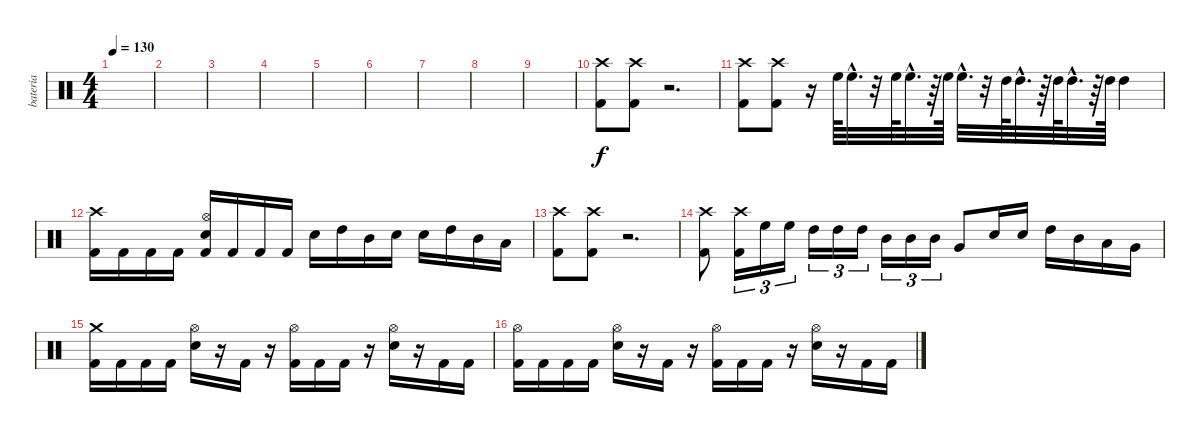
\track ("bateria" "bateria") {instrument percussion}
\staff {score}
\articulation defaults
\ts (4 4)
\tempo 130
\clef neutral
\ks c
|
|
|
|
|
|
|
|
|
("Crash high (hit)" "Kick (hit) 2").8 ("Crash high (hit)" "Kick (hit) 2").8 r.2{d} |
("Crash high (hit)" "Kick (hit) 2").8 ("Crash high (hit)" "Kick (hit) 2").8 r.16 "High Floor Tom (hit)".64 "High Floor Tom (hit)"{hac}.32{d} r.32 "High Floor Tom (hit)".64 "High Floor Tom (hit)"{hac}.32{d} r.64 "High Floor Tom (hit)".64 "High Floor Tom (hit)"{hac}.32{d} r.32 "High Tom (hit)".64 "High Tom (hit)"{hac}.32{d} r.64 "High Tom (hit)".64 "High Tom (hit)"{hac}.32{d} r.64 "High Tom (hit)".64 "High Tom (hit)".4 |
("Crash high (hit)" "Kick (hit) 2").16 "Kick (hit) 2".16 "Kick (hit) 2".16 "Kick (hit) 2".16 ("Hi-Hat (open)" "Electric Snare (hit)" "Kick (hit) 2").16 "Kick (hit) 2".16 "Kick (hit) 2".16 "Kick (hit) 2".16 "Electric Snare (hit)".16 "High Tom (hit)".16 "Mid Tom (hit)".16 "Electric Snare (hit)".16 "Electric Snare (hit)".16 "High Tom (hit)".16 "Mid Tom (hit)".16 "Low Tom (hit)".16 |
("Crash high (hit)" "Kick (hit) 2").8 ("Crash high (hit)" "Kick (hit) 2").8 r.2{d} |
("Crash high (hit)" "Kick (hit) 2").8 ("Crash high (hit)" "Kick (hit) 2").16{tu (3 2)} "High Floor Tom (hit)".16{tu (3 2)} "High Floor Tom (hit)".16{tu (3 2)} "High Tom (hit)".16{tu (3 2)} "High Tom (hit)".16{tu (3 2)} "High Tom (hit)".16{tu (3 2)} "Mid Tom (hit)".16{tu (3 2)} "Mid Tom (hit)".16{tu (3 2)} "Mid Tom (hit)".16{tu (3 2)} "Very Low Tom (hit)".8 "Electric Snare (hit)".16 "Electric Snare (hit)".16 "High Tom (hit)".16 "Mid Tom (hit)".16 "Low Tom (hit)".16 "Very Low Tom (hit)".16 |
("Crash medium (hit)" "Kick (hit) 2").16 "Kick (hit) 2".16 "Kick (hit) 2".16 "Kick (hit) 2".16 ("Hi-Hat (open)" "Electric Snare (hit)").16 r.16 "Kick (hit) 2".16 r.16 ("Hi-Hat (open)" "Kick (hit) 2").16 "Kick (hit) 2".16 "Kick (hit) 2".16 r.16 ("Hi-Hat (open)" "Electric Snare (hit)").16 r.16 "Kick (hit) 2".16 "Kick (hit) 2".16 |
("Hi-Hat (open)" "Kick (hit) 2").16 "Kick (hit) 2".16 "Kick (hit) 2".16 "Kick (hit) 2".16 ("Hi-Hat (open)" "Electric Snare (hit)").16 r.16 "Kick (hit) 2".16 r.16 ("Hi-Hat (open)" "Kick (hit) 2").16 "Kick (hit) 2".16 "Kick (hit) 2".16 r.16 ("Hi-Hat (open)" "Electric Snare (hit)").16 r.16 "Kick (hit) 2".16 "Kick (hit) 2".16
